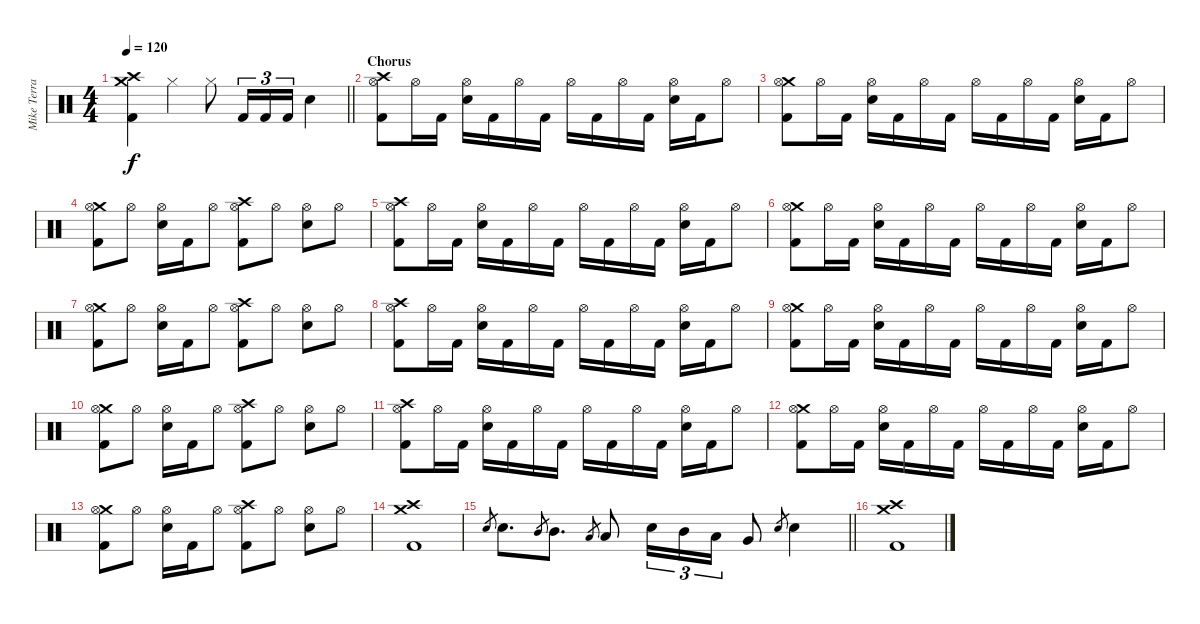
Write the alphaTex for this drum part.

\track ("Mike Terrana" "Mike Terra") {instrument percussion}
\staff {score}
\articulation defaults
\ts (4 4)
\tempo 120
\clef neutral
\barLineRight lightlight
\ks c
("Crash high (hit)" "Crash medium (hit)" "Kick (hit) 2").4{dy f} "Hi-Hat (closed)".4 "Hi-Hat (closed)".8 "Kick (hit) 2".16{tu (3 2)} "Kick (hit) 2".16{tu (3 2)} "Kick (hit) 2".16{tu (3 2)} "Snare (hit) 2".4 |
\section ("" "Chorus")
("Crash high (hit)" "Hi-Hat (open)" "Kick (hit) 2").8 "Hi-Hat (open)".16 "Kick (hit) 2".16 ("Hi-Hat (open)" "Snare (hit) 2").16 "Kick (hit) 2".16 "Hi-Hat (open)".16 "Kick (hit) 2".16 "Hi-Hat (open)".16 "Kick (hit) 2".16 "Hi-Hat (open)".16 "Kick (hit) 2".16 ("Hi-Hat (open)" "Snare (hit) 2").16 "Kick (hit) 2".16 "Hi-Hat (open)".8 |
("Crash medium (hit)" "Hi-Hat (open)" "Kick (hit) 2").8 "Hi-Hat (open)".16 "Kick (hit) 2".16 ("Hi-Hat (open)" "Snare (hit) 2").16 "Kick (hit) 2".16 "Hi-Hat (open)".16 "Kick (hit) 2".16 "Hi-Hat (open)".16 "Kick (hit) 2".16 "Hi-Hat (open)".16 "Kick (hit) 2".16 ("Hi-Hat (open)" "Snare (hit) 2").16 "Kick (hit) 2".16 "Hi-Hat (open)".8 |
("Crash medium (hit)" "Hi-Hat (open)" "Kick (hit) 2").8 "Hi-Hat (open)".8 ("Hi-Hat (open)" "Snare (hit) 2").16 "Kick (hit) 2".16 "Hi-Hat (open)".8 ("Crash high (hit)" "Hi-Hat (open)" "Kick (hit) 2").8 "Hi-Hat (open)".8 ("Hi-Hat (open)" "Snare (hit) 2").8 "Hi-Hat (open)".8 |
("Crash high (hit)" "Hi-Hat (open)" "Kick (hit) 2").8 "Hi-Hat (open)".16 "Kick (hit) 2".16 ("Hi-Hat (open)" "Snare (hit) 2").16 "Kick (hit) 2".16 "Hi-Hat (open)".16 "Kick (hit) 2".16 "Hi-Hat (open)".16 "Kick (hit) 2".16 "Hi-Hat (open)".16 "Kick (hit) 2".16 ("Hi-Hat (open)" "Snare (hit) 2").16 "Kick (hit) 2".16 "Hi-Hat (open)".8 |
("Crash medium (hit)" "Hi-Hat (open)" "Kick (hit) 2").8 "Hi-Hat (open)".16 "Kick (hit) 2".16 ("Hi-Hat (open)" "Snare (hit) 2").16 "Kick (hit) 2".16 "Hi-Hat (open)".16 "Kick (hit) 2".16 "Hi-Hat (open)".16 "Kick (hit) 2".16 "Hi-Hat (open)".16 "Kick (hit) 2".16 ("Hi-Hat (open)" "Snare (hit) 2").16 "Kick (hit) 2".16 "Hi-Hat (open)".8 |
("Crash medium (hit)" "Hi-Hat (open)" "Kick (hit) 2").8 "Hi-Hat (open)".8 ("Hi-Hat (open)" "Snare (hit) 2").16 "Kick (hit) 2".16 "Hi-Hat (open)".8 ("Crash high (hit)" "Hi-Hat (open)" "Kick (hit) 2").8 "Hi-Hat (open)".8 ("Hi-Hat (open)" "Snare (hit) 2").8 "Hi-Hat (open)".8 |
("Crash high (hit)" "Hi-Hat (open)" "Kick (hit) 2").8 "Hi-Hat (open)".16 "Kick (hit) 2".16 ("Hi-Hat (open)" "Snare (hit) 2").16 "Kick (hit) 2".16 "Hi-Hat (open)".16 "Kick (hit) 2".16 "Hi-Hat (open)".16 "Kick (hit) 2".16 "Hi-Hat (open)".16 "Kick (hit) 2".16 ("Hi-Hat (open)" "Snare (hit) 2").16 "Kick (hit) 2".16 "Hi-Hat (open)".8 |
("Crash medium (hit)" "Hi-Hat (open)" "Kick (hit) 2").8 "Hi-Hat (open)".16 "Kick (hit) 2".16 ("Hi-Hat (open)" "Snare (hit) 2").16 "Kick (hit) 2".16 "Hi-Hat (open)".16 "Kick (hit) 2".16 "Hi-Hat (open)".16 "Kick (hit) 2".16 "Hi-Hat (open)".16 "Kick (hit) 2".16 ("Hi-Hat (open)" "Snare (hit) 2").16 "Kick (hit) 2".16 "Hi-Hat (open)".8 |
("Crash medium (hit)" "Hi-Hat (open)" "Kick (hit) 2").8 "Hi-Hat (open)".8 ("Hi-Hat (open)" "Snare (hit) 2").16 "Kick (hit) 2".16 "Hi-Hat (open)".8 ("Crash high (hit)" "Hi-Hat (open)" "Kick (hit) 2").8 "Hi-Hat (open)".8 ("Hi-Hat (open)" "Snare (hit) 2").8 "Hi-Hat (open)".8 |
("Crash high (hit)" "Hi-Hat (open)" "Kick (hit) 2").8 "Hi-Hat (open)".16 "Kick (hit) 2".16 ("Hi-Hat (open)" "Snare (hit) 2").16 "Kick (hit) 2".16 "Hi-Hat (open)".16 "Kick (hit) 2".16 "Hi-Hat (open)".16 "Kick (hit) 2".16 "Hi-Hat (open)".16 "Kick (hit) 2".16 ("Hi-Hat (open)" "Snare (hit) 2").16 "Kick (hit) 2".16 "Hi-Hat (open)".8 |
("Crash medium (hit)" "Hi-Hat (open)" "Kick (hit) 2").8 "Hi-Hat (open)".16 "Kick (hit) 2".16 ("Hi-Hat (open)" "Snare (hit) 2").16 "Kick (hit) 2".16 "Hi-Hat (open)".16 "Kick (hit) 2".16 "Hi-Hat (open)".16 "Kick (hit) 2".16 "Hi-Hat (open)".16 "Kick (hit) 2".16 ("Hi-Hat (open)" "Snare (hit) 2").16 "Kick (hit) 2".16 "Hi-Hat (open)".8 |
("Crash medium (hit)" "Hi-Hat (open)" "Kick (hit) 2").8 "Hi-Hat (open)".8 ("Hi-Hat (open)" "Snare (hit) 2").16 "Kick (hit) 2".16 "Hi-Hat (open)".8 ("Crash high (hit)" "Hi-Hat (open)" "Kick (hit) 2").8 "Hi-Hat (open)".8 ("Hi-Hat (open)" "Snare (hit) 2").8 "Hi-Hat (open)".8 |
("Crash high (hit)" "Crash medium (hit)" "Kick (hit) 2").1 |
\barLineRight lightlight "Snare (hit) 2".8{gr} "Snare (hit) 2".8{d} "Mid Tom (hit)".8{gr} "Mid Tom (hit)".8{d} "Low Tom (hit)".8{gr} "Low Tom (hit)".8 "Snare (hit) 2".16{tu (3 2)} "Mid Tom (hit)".16{tu (3 2)} "Low Tom (hit)".16{tu (3 2)} "Very Low Tom (hit)".8 "Snare (hit) 2".8{gr} "Snare (hit) 2".4
|
("Crash high (hit)" "Crash medium (hit)" "Kick (hit) 2").1
